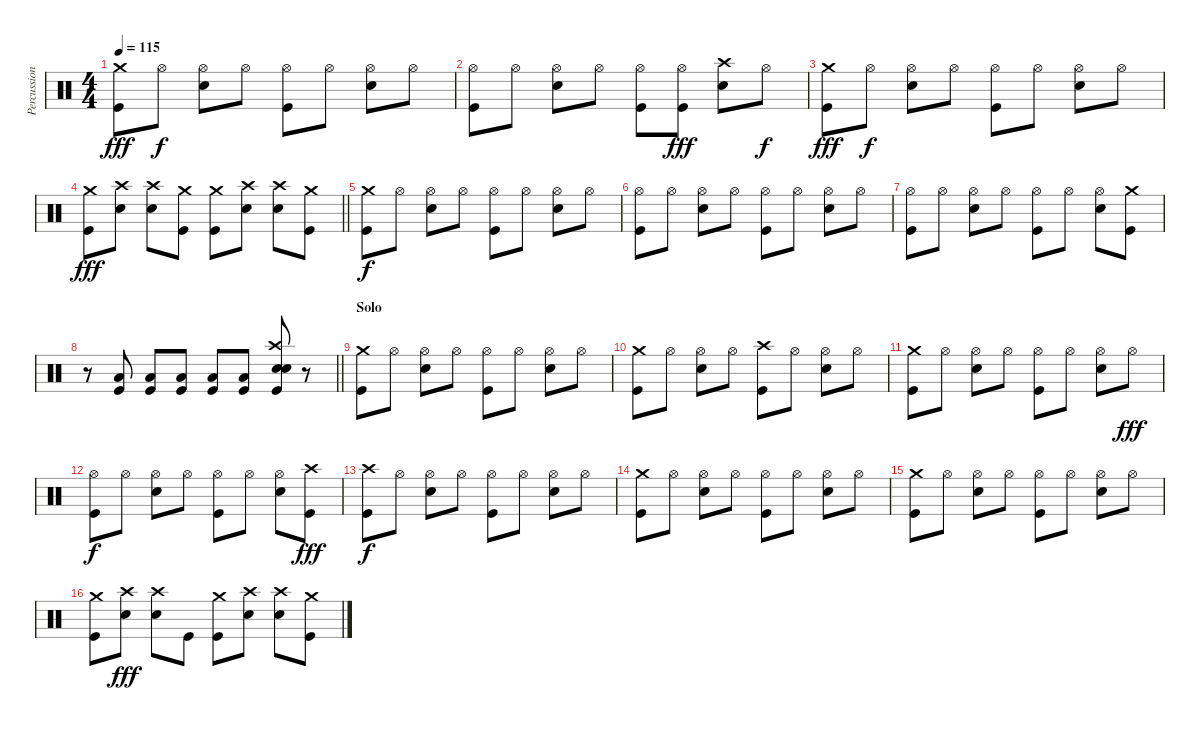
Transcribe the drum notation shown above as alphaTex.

\track ("Percussion" "Percussion") {instrument percussion}
\staff {score}
\articulation defaults
\ts (4 4)
\tempo 115
\clef neutral
\ks c
("Crash medium (hit)" "Kick (hit)").8{dy fff} "Hi-Hat (open)".8{dy f} ("Hi-Hat (open)" "Electric Snare (hit)").8 "Hi-Hat (open)".8 ("Hi-Hat (open)" "Kick (hit)").8 "Hi-Hat (open)".8 ("Hi-Hat (open)" "Electric Snare (hit)").8 "Hi-Hat (open)".8 |
("Hi-Hat (open)" "Kick (hit)").8 "Hi-Hat (open)".8 ("Hi-Hat (open)" "Electric Snare (hit)").8 "Hi-Hat (open)".8 ("Hi-Hat (open)" "Kick (hit)").8 ("Hi-Hat (open)" "Kick (hit)").8{dy fff} ("Crash high (hit)" "Electric Snare (hit)").8 "Hi-Hat (open)".8{dy f} |
("Crash medium (hit)" "Kick (hit)").8{dy fff} "Hi-Hat (open)".8{dy f} ("Hi-Hat (open)" "Electric Snare (hit)").8 "Hi-Hat (open)".8 ("Hi-Hat (open)" "Kick (hit)").8 "Hi-Hat (open)".8 ("Hi-Hat (open)" "Electric Snare (hit)").8 "Hi-Hat (open)".8 |
\barLineRight lightlight
("Crash medium (hit)" "Kick (hit)").8{dy fff} ("Crash high (hit)" "Electric Snare (hit)").8 ("Crash high (hit)" "Electric Snare (hit)").8 ("Crash medium (hit)" "Kick (hit)").8 ("Crash medium (hit)" "Kick (hit)").8 ("Crash high (hit)" "Electric Snare (hit)").8 ("Crash high (hit)" "Electric Snare (hit)").8 ("Crash medium (hit)" "Kick (hit)").8 |
("Crash medium (hit)" "Kick (hit)").8{dy f} "Hi-Hat (open)".8 ("Hi-Hat (open)" "Electric Snare (hit)").8 "Hi-Hat (open)".8 ("Hi-Hat (open)" "Kick (hit)").8 "Hi-Hat (open)".8 ("Hi-Hat (open)" "Electric Snare (hit)").8 "Hi-Hat (open)".8 |
("Hi-Hat (open)" "Kick (hit)").8 "Hi-Hat (open)".8 ("Hi-Hat (open)" "Electric Snare (hit)").8 "Hi-Hat (open)".8 ("Hi-Hat (open)" "Kick (hit)").8 "Hi-Hat (open)".8 ("Hi-Hat (open)" "Electric Snare (hit)").8 "Hi-Hat (open)".8 |
("Hi-Hat (open)" "Kick (hit)").8 "Hi-Hat (open)".8 ("Hi-Hat (open)" "Electric Snare (hit)").8 "Hi-Hat (open)".8 ("Hi-Hat (open)" "Kick (hit)").8 "Hi-Hat (open)".8 ("Hi-Hat (open)" "Electric Snare (hit)").8 ("Crash medium (hit)" "Kick (hit)").8 |
\barLineRight lightlight
r.8 ("Kick (hit)" "Low Tom (hit)").8 ("Kick (hit)" "Low Tom (hit)").8 ("Kick (hit)" "Low Tom (hit)").8 ("Kick (hit)" "Low Tom (hit)").8 ("Kick (hit)" "Low Tom (hit)").8 ("Crash high (hit)" "Kick (hit)" "Snare (hit) 2" "Electric Snare (hit)").8 r.8 |
\section ("" "Solo")
("Crash medium (hit)" "Kick (hit)").8 "Hi-Hat (open)".8 ("Hi-Hat (open)" "Electric Snare (hit)").8 "Hi-Hat (open)".8 ("Hi-Hat (open)" "Kick (hit)").8 "Hi-Hat (open)".8 ("Hi-Hat (open)" "Electric Snare (hit)").8 "Hi-Hat (open)".8 |
("Crash medium (hit)" "Kick (hit)").8 "Hi-Hat (open)".8 ("Hi-Hat (open)" "Electric Snare (hit)").8 "Hi-Hat (open)".8 ("Crash high (hit)" "Kick (hit)").8 "Hi-Hat (open)".8 ("Hi-Hat (open)" "Electric Snare (hit)").8 "Hi-Hat (open)".8 |
("Crash medium (hit)" "Kick (hit)").8 "Hi-Hat (open)".8 ("Hi-Hat (open)" "Electric Snare (hit)").8 "Hi-Hat (open)".8 ("Hi-Hat (open)" "Kick (hit)").8 "Hi-Hat (open)".8 ("Hi-Hat (open)" "Electric Snare (hit)").8 "Hi-Hat (open)".8{dy fff} |
("Hi-Hat (open)" "Kick (hit)").8{dy f} "Hi-Hat (open)".8 ("Hi-Hat (open)" "Electric Snare (hit)").8 "Hi-Hat (open)".8 ("Hi-Hat (open)" "Kick (hit)").8 "Hi-Hat (open)".8 ("Hi-Hat (open)" "Electric Snare (hit)").8 ("Crash high (hit)" "Kick (hit)").8{dy fff} |
("Crash high (hit)" "Kick (hit)").8{dy f} "Hi-Hat (open)".8 ("Hi-Hat (open)" "Electric Snare (hit)").8 "Hi-Hat (open)".8 ("Hi-Hat (open)" "Kick (hit)").8 "Hi-Hat (open)".8 ("Hi-Hat (open)" "Electric Snare (hit)").8 "Hi-Hat (open)".8 |
("Crash medium (hit)" "Kick (hit)").8 "Hi-Hat (open)".8 ("Hi-Hat (open)" "Electric Snare (hit)").8 "Hi-Hat (open)".8 ("Hi-Hat (open)" "Kick (hit)").8 "Hi-Hat (open)".8 ("Hi-Hat (open)" "Electric Snare (hit)").8 "Hi-Hat (open)".8 |
("Crash medium (hit)" "Kick (hit)").8 "Hi-Hat (open)".8 ("Hi-Hat (open)" "Electric Snare (hit)").8 "Hi-Hat (open)".8 ("Hi-Hat (open)" "Kick (hit)").8 "Hi-Hat (open)".8 ("Hi-Hat (open)" "Electric Snare (hit)").8 "Hi-Hat (open)".8 |
("Crash medium (hit)" "Kick (hit)").8 ("Crash high (hit)" "Electric Snare (hit)").8{dy fff} ("Crash high (hit)" "Electric Snare (hit)").8 "Kick (hit)".8 ("Crash medium (hit)" "Kick (hit)").8 ("Crash high (hit)" "Electric Snare (hit)").8 ("Crash high (hit)" "Electric Snare (hit)").8 ("Crash medium (hit)" "Kick (hit)").8
